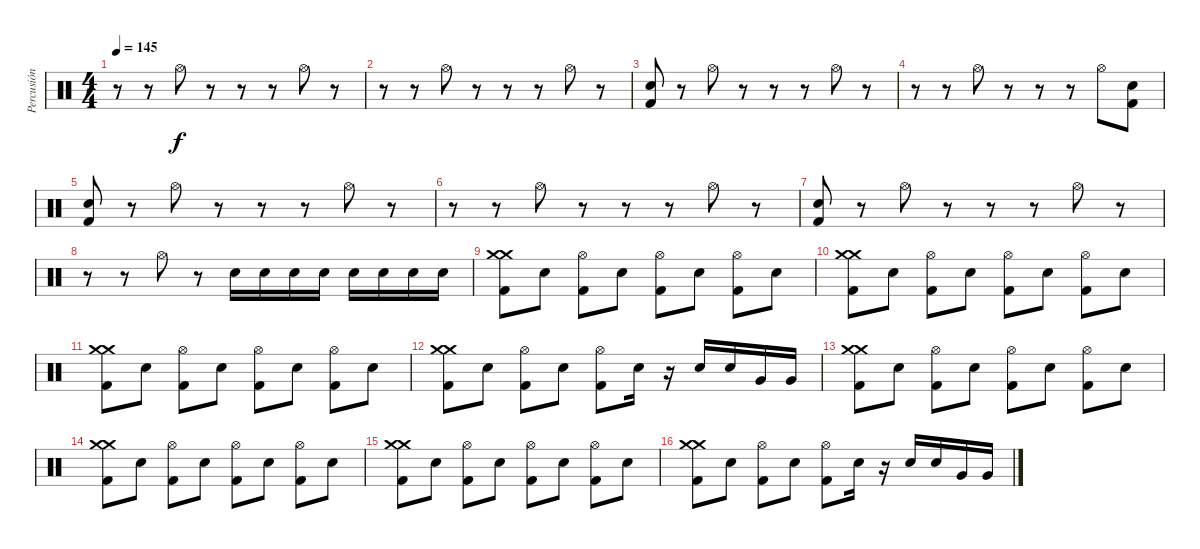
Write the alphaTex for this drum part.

\track ("Percusión" "Percusión") {instrument percussion}
\staff {score}
\articulation defaults
\ts (4 4)
\tempo 145
\clef neutral
\ks c
r.8{dy f} r.8 "Hi-Hat (open)".8 r.8 r.8 r.8 "Hi-Hat (open)".8 r.8 |
r.8 r.8 "Hi-Hat (open)".8 r.8 r.8 r.8 "Hi-Hat (open)".8 r.8 |
("Snare (hit) 2" "Kick (hit) 2").8 r.8 "Hi-Hat (open)".8 r.8 r.8 r.8 "Hi-Hat (open)".8 r.8 |
r.8 r.8 "Hi-Hat (open)".8 r.8 r.8 r.8 "Hi-Hat (open)".8 ("Snare (hit) 2" "Kick (hit) 2").8 |
("Snare (hit) 2" "Kick (hit) 2").8 r.8 "Hi-Hat (open)".8 r.8 r.8 r.8 "Hi-Hat (open)".8 r.8 |
r.8 r.8 "Hi-Hat (open)".8 r.8 r.8 r.8 "Hi-Hat (open)".8 r.8 |
("Snare (hit) 2" "Kick (hit) 2").8 r.8 "Hi-Hat (open)".8 r.8 r.8 r.8 "Hi-Hat (open)".8 r.8 |
r.8 r.8 "Hi-Hat (open)".8 r.8 "Snare (hit) 2".16 "Snare (hit) 2".16 "Snare (hit) 2".16 "Snare (hit) 2".16 "Snare (hit) 2".16 "Snare (hit) 2".16 "Snare (hit) 2".16 "Snare (hit) 2".16 |
("Crash medium (hit)" "Crash medium (hit)" "Kick (hit) 2").8 "Snare (hit) 2".8 ("Hi-Hat (open)" "Kick (hit) 2").8 "Snare (hit) 2".8 ("Hi-Hat (open)" "Kick (hit) 2").8 "Snare (hit) 2".8 ("Hi-Hat (open)" "Kick (hit) 2").8 "Snare (hit) 2".8 |
("Crash medium (hit)" "Crash medium (hit)" "Kick (hit) 2").8 "Snare (hit) 2".8 ("Hi-Hat (open)" "Kick (hit) 2").8 "Snare (hit) 2".8 ("Hi-Hat (open)" "Kick (hit) 2").8 "Snare (hit) 2".8 ("Hi-Hat (open)" "Kick (hit) 2").8 "Snare (hit) 2".8 |
("Crash medium (hit)" "Crash medium (hit)" "Kick (hit) 2").8 "Snare (hit) 2".8 ("Hi-Hat (open)" "Kick (hit) 2").8 "Snare (hit) 2".8 ("Hi-Hat (open)" "Kick (hit) 2").8 "Snare (hit) 2".8 ("Hi-Hat (open)" "Kick (hit) 2").8 "Snare (hit) 2".8 |
("Crash medium (hit)" "Crash medium (hit)" "Kick (hit) 2").8 "Snare (hit) 2".8 ("Hi-Hat (open)" "Kick (hit) 2").8 "Snare (hit) 2".8 ("Hi-Hat (open)" "Kick (hit) 2").8 "Snare (hit) 2".16 r.16 "Snare (hit) 2".16 "Snare (hit) 2".16 "Very Low Tom (hit)".16 "Very Low Tom (hit)".16 |
("Crash medium (hit)" "Crash medium (hit)" "Kick (hit) 2").8 "Snare (hit) 2".8 ("Hi-Hat (open)" "Kick (hit) 2").8 "Snare (hit) 2".8 ("Hi-Hat (open)" "Kick (hit) 2").8 "Snare (hit) 2".8 ("Hi-Hat (open)" "Kick (hit) 2").8 "Snare (hit) 2".8 |
("Crash medium (hit)" "Crash medium (hit)" "Kick (hit) 2").8 "Snare (hit) 2".8 ("Hi-Hat (open)" "Kick (hit) 2").8 "Snare (hit) 2".8 ("Hi-Hat (open)" "Kick (hit) 2").8 "Snare (hit) 2".8 ("Hi-Hat (open)" "Kick (hit) 2").8 "Snare (hit) 2".8 |
("Crash medium (hit)" "Crash medium (hit)" "Kick (hit) 2").8 "Snare (hit) 2".8 ("Hi-Hat (open)" "Kick (hit) 2").8 "Snare (hit) 2".8 ("Hi-Hat (open)" "Kick (hit) 2").8 "Snare (hit) 2".8 ("Hi-Hat (open)" "Kick (hit) 2").8 "Snare (hit) 2".8 |
("Crash medium (hit)" "Crash medium (hit)" "Kick (hit) 2").8 "Snare (hit) 2".8 ("Hi-Hat (open)" "Kick (hit) 2").8 "Snare (hit) 2".8 ("Hi-Hat (open)" "Kick (hit) 2").8 "Snare (hit) 2".16 r.16 "Snare (hit) 2".16 "Snare (hit) 2".16 "Very Low Tom (hit)".16 "Very Low Tom (hit)".16
